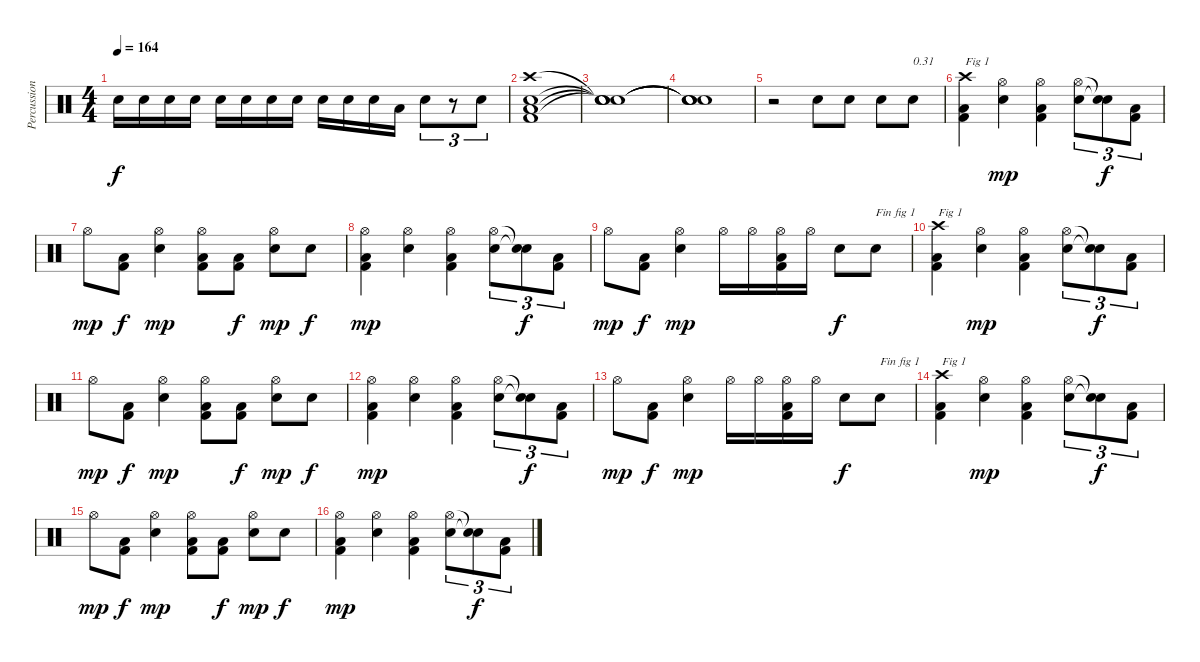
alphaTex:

\track ("Percussions" "Percussion") {instrument percussion}
\staff {score}
\articulation defaults
\ts (4 4)
\tempo 164
\clef neutral
\ks c "Electric Snare (hit)".16{dy f} "Electric Snare (hit)".16 "Electric Snare (hit)".16 "Electric Snare (hit)".16 "Electric Snare (hit)".16 "Electric Snare (hit)".16 "Electric Snare (hit)".16 "Electric Snare (hit)".16 "Electric Snare (hit)".16 "Electric Snare (hit)".16 "Electric Snare (hit)".16 "Low Tom (hit)".16 "Snare (hit) 2".8{tu (3 2)}
r.8{tu (3 2)} "Snare (hit) 2".8{tu (3 2)} |
("Low Floor Tom (hit)" "Kick (hit) 2" "Electric Snare (hit)" "Crash high (hit)").1 |
("Snare (hit)"{t} "Snare (hit)"{t} "Snare (hit)"{t} "Snare (hit)"{t}).1 |
("Snare (hit)"{t} "Snare (hit)"{t} "Snare (hit)"{t} "Snare (hit)"{t}).1 |
r.2 "Electric Snare (hit)".8 "Electric Snare (hit)".8 "Electric Snare (hit)".8 "Electric Snare (hit)".8{txt "0.31"} |
("Kick (hit) 2" "Low Floor Tom (hit)" "Crash high (hit)").4{txt "Fig 1"} ("Electric Snare (hit)" "Hi-Hat (open)").4{dy mp} ("Kick (hit) 2" "Low Floor Tom (hit)" "Hi-Hat (open)").4 ("Electric Snare (hit)" "Hi-Hat (open)").8{tu (3 2)} ("Snare (hit)"{t} "Snare (hit)"{t}).8{tu (3 2) dy f} ("Kick (hit) 2" "Low Floor Tom (hit)").8{tu (3 2)} |
"Hi-Hat (open)".8{dy mp} ("Kick (hit) 2" "Low Floor Tom (hit)").8{dy f} ("Electric Snare (hit)" "Hi-Hat (open)").4{dy mp} ("Kick (hit) 2" "Low Floor Tom (hit)" "Hi-Hat (open)").8 ("Kick (hit) 2" "Low Floor Tom (hit)").8{dy f} ("Electric Snare (hit)" "Hi-Hat (open)").8{dy mp} "Electric Snare (hit)".8{dy f} |
("Kick (hit) 2" "Low Floor Tom (hit)" "Hi-Hat (open)").4{dy mp} ("Electric Snare (hit)" "Hi-Hat (open)").4 ("Kick (hit) 2" "Low Floor Tom (hit)" "Hi-Hat (open)").4 ("Electric Snare (hit)" "Hi-Hat (open)").8{tu (3 2)} ("Snare (hit)"{t} "Snare (hit)"{t}).8{tu (3 2) dy f} ("Kick (hit) 2" "Low Floor Tom (hit)").8{tu (3 2)} |
"Hi-Hat (open)".8{dy mp} ("Kick (hit) 2" "Low Floor Tom (hit)").8{dy f} ("Electric Snare (hit)" "Hi-Hat (open)").4{dy mp} "Hi-Hat (open)".16 "Hi-Hat (open)".16 ("Kick (hit) 2" "Low Floor Tom (hit)" "Hi-Hat (open)").16 "Hi-Hat (open)".16 "Electric Snare (hit)".8{dy f} "Electric Snare (hit)".8{txt "Fin fig 1"} |
("Kick (hit) 2" "Low Floor Tom (hit)" "Crash high (hit)").4{txt "Fig 1"} ("Electric Snare (hit)" "Hi-Hat (open)").4{dy mp} ("Kick (hit) 2" "Low Floor Tom (hit)" "Hi-Hat (open)").4 ("Electric Snare (hit)" "Hi-Hat (open)").8{tu (3 2)} ("Snare (hit)"{t} "Snare (hit)"{t}).8{tu (3 2) dy f} ("Kick (hit) 2" "Low Floor Tom (hit)").8{tu (3 2)} |
"Hi-Hat (open)".8{dy mp} ("Kick (hit) 2" "Low Floor Tom (hit)").8{dy f} ("Electric Snare (hit)" "Hi-Hat (open)").4{dy mp} ("Kick (hit) 2" "Low Floor Tom (hit)" "Hi-Hat (open)").8 ("Kick (hit) 2" "Low Floor Tom (hit)").8{dy f} ("Electric Snare (hit)" "Hi-Hat (open)").8{dy mp} "Electric Snare (hit)".8{dy f} |
("Kick (hit) 2" "Low Floor Tom (hit)" "Hi-Hat (open)").4{dy mp} ("Electric Snare (hit)" "Hi-Hat (open)").4 ("Kick (hit) 2" "Low Floor Tom (hit)" "Hi-Hat (open)").4 ("Electric Snare (hit)" "Hi-Hat (open)").8{tu (3 2)} ("Snare (hit)"{t} "Snare (hit)"{t}).8{tu (3 2) dy f} ("Kick (hit) 2" "Low Floor Tom (hit)").8{tu (3 2)} |
"Hi-Hat (open)".8{dy mp} ("Kick (hit) 2" "Low Floor Tom (hit)").8{dy f} ("Electric Snare (hit)" "Hi-Hat (open)").4{dy mp} "Hi-Hat (open)".16 "Hi-Hat (open)".16 ("Kick (hit) 2" "Low Floor Tom (hit)" "Hi-Hat (open)").16 "Hi-Hat (open)".16 "Electric Snare (hit)".8{dy f} "Electric Snare (hit)".8{txt "Fin fig 1"} |
("Kick (hit) 2" "Low Floor Tom (hit)" "Crash high (hit)").4{txt "Fig 1"} ("Electric Snare (hit)" "Hi-Hat (open)").4{dy mp} ("Kick (hit) 2" "Low Floor Tom (hit)" "Hi-Hat (open)").4 ("Electric Snare (hit)" "Hi-Hat (open)").8{tu (3 2)} ("Snare (hit)"{t} "Snare (hit)"{t}).8{tu (3 2) dy f} ("Kick (hit) 2" "Low Floor Tom (hit)").8{tu (3 2)} |
"Hi-Hat (open)".8{dy mp} ("Kick (hit) 2" "Low Floor Tom (hit)").8{dy f} ("Electric Snare (hit)" "Hi-Hat (open)").4{dy mp} ("Kick (hit) 2" "Low Floor Tom (hit)" "Hi-Hat (open)").8 ("Kick (hit) 2" "Low Floor Tom (hit)").8{dy f} ("Electric Snare (hit)" "Hi-Hat (open)").8{dy mp} "Electric Snare (hit)".8{dy f} |
("Kick (hit) 2" "Low Floor Tom (hit)" "Hi-Hat (open)").4{dy mp} ("Electric Snare (hit)" "Hi-Hat (open)").4 ("Kick (hit) 2" "Low Floor Tom (hit)" "Hi-Hat (open)").4 ("Electric Snare (hit)" "Hi-Hat (open)").8{tu (3 2)} ("Snare (hit)"{t} "Snare (hit)"{t}).8{tu (3 2) dy f} ("Kick (hit) 2" "Low Floor Tom (hit)").8{tu (3 2)}
